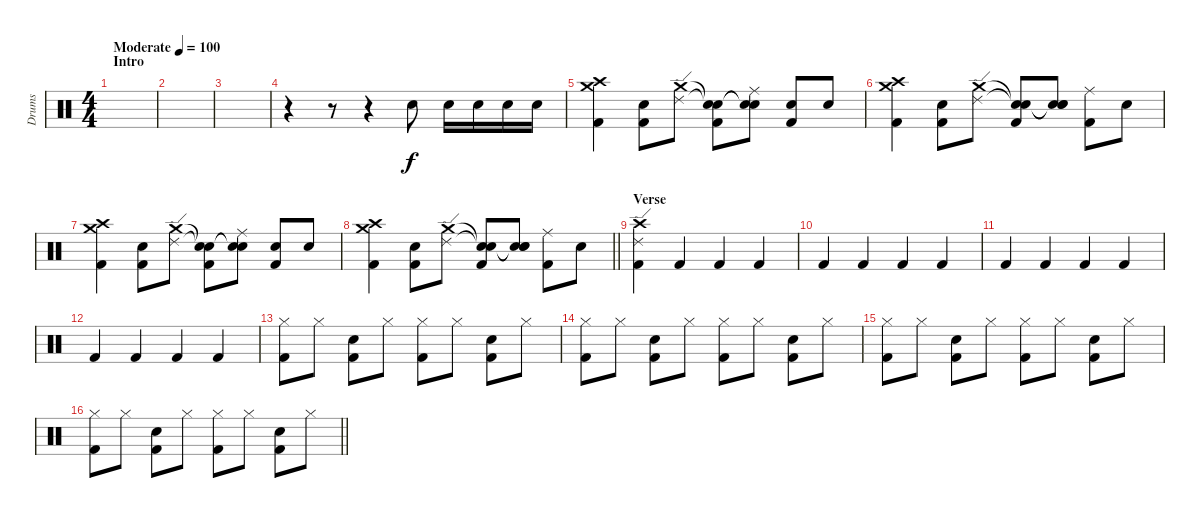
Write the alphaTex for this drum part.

\track ("Drums" "Drums") {instrument percussion}
\staff {score}
\articulation defaults
\ts (4 4)
\section ("" "Intro")
\tempo (100 "Moderate")
\clef neutral
\ks c
|
|
|
r.4 r.8 r.4 "Snare (hit) 2".8 "Snare (hit) 2".16 "Snare (hit) 2".16 "Snare (hit) 2".16 "Snare (hit) 2".16 |
("Crash medium (hit)" "Crash high (hit)" "Kick (hit) 2").4 ("Snare (hit) 2" "Kick (hit) 2").8 ("Crash medium (hit)" "Ride (edge) 2").8 ("Snare (hit)"{t} "Snare (hit)"{t} "Kick (hit) 2").8 ("Snare (hit)"{t} "Snare (hit)"{t} "Ride (middle)").8 ("Snare (hit) 2" "Kick (hit) 2").8 "Snare (hit) 2".8 |
("Crash medium (hit)" "Crash high (hit)" "Kick (hit) 2").4 ("Snare (hit) 2" "Kick (hit) 2").8 ("Crash medium (hit)" "Ride (edge) 2").8 ("Snare (hit)"{t} "Snare (hit)"{t} "Kick (hit) 2").8 ("Snare (hit)"{t} "Snare (hit)"{t} "Snare (hit) 2").8 ("Ride (middle)" "Kick (hit) 2").8 "Snare (hit) 2".8 |
("Crash medium (hit)" "Crash high (hit)" "Kick (hit) 2").4 ("Snare (hit) 2" "Kick (hit) 2").8 ("Crash medium (hit)" "Ride (edge) 2").8 ("Snare (hit)"{t} "Snare (hit)"{t} "Kick (hit) 2").8 ("Snare (hit)"{t} "Snare (hit)"{t} "Ride (middle)").8 ("Snare (hit) 2" "Kick (hit) 2").8 "Snare (hit) 2".8 |
\barLineRight lightlight
("Crash medium (hit)" "Crash high (hit)" "Kick (hit) 2").4 ("Snare (hit) 2" "Kick (hit) 2").8 ("Crash medium (hit)" "Ride (edge) 2").8 ("Snare (hit)"{t} "Snare (hit)"{t} "Kick (hit) 2").8 ("Snare (hit)"{t} "Snare (hit)"{t} "Snare (hit) 2").8 ("Ride (middle)" "Kick (hit) 2").8 "Snare (hit) 2".8 |
\section ("" "Verse")
("Ride (edge) 2" "Crash high (hit)" "Kick (hit) 2").4 "Kick (hit) 2".4 "Kick (hit) 2".4 "Kick (hit) 2".4 |
"Kick (hit) 2".4 "Kick (hit) 2".4 "Kick (hit) 2".4 "Kick (hit) 2".4 |
"Kick (hit) 2".4 "Kick (hit) 2".4 "Kick (hit) 2".4 "Kick (hit) 2".4 |
"Kick (hit) 2".4 "Kick (hit) 2".4 "Kick (hit) 2".4 "Kick (hit) 2".4 |
("Hi-Hat (closed)" "Kick (hit) 2").8 "Hi-Hat (closed)".8 ("Snare (hit) 2" "Kick (hit) 2").8 "Hi-Hat (closed)".8 ("Hi-Hat (closed)" "Kick (hit) 2").8 "Hi-Hat (closed)".8 ("Snare (hit) 2" "Kick (hit) 2").8 "Hi-Hat (closed)".8 |
("Hi-Hat (closed)" "Kick (hit) 2").8 "Hi-Hat (closed)".8 ("Snare (hit) 2" "Kick (hit) 2").8 "Hi-Hat (closed)".8 ("Hi-Hat (closed)" "Kick (hit) 2").8 "Hi-Hat (closed)".8 ("Snare (hit) 2" "Kick (hit) 2").8 "Hi-Hat (closed)".8 |
("Hi-Hat (closed)" "Kick (hit) 2").8 "Hi-Hat (closed)".8 ("Snare (hit) 2" "Kick (hit) 2").8 "Hi-Hat (closed)".8 ("Hi-Hat (closed)" "Kick (hit) 2").8 "Hi-Hat (closed)".8 ("Snare (hit) 2" "Kick (hit) 2").8 "Hi-Hat (closed)".8 |
\barLineRight lightlight
("Hi-Hat (closed)" "Kick (hit) 2").8 "Hi-Hat (closed)".8 ("Snare (hit) 2" "Kick (hit) 2").8 "Hi-Hat (closed)".8 ("Hi-Hat (closed)" "Kick (hit) 2").8 "Hi-Hat (closed)".8 ("Snare (hit) 2" "Kick (hit) 2").8 "Hi-Hat (closed)".8
